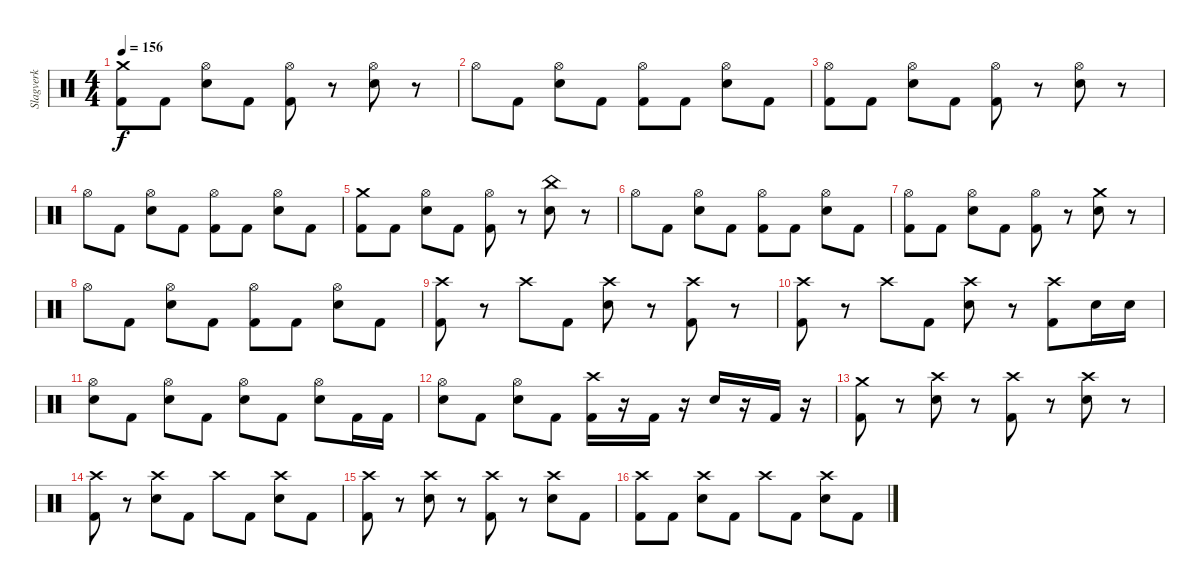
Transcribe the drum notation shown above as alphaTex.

\track ("Slagverk" "Slagverk") {instrument percussion}
\staff {score}
\articulation defaults
\ts (4 4)
\tempo 156
\clef neutral
\ks c
("Crash medium (hit)" "Kick (hit) 2").8{dy f} "Kick (hit) 2".8 ("Hi-Hat (open)" "Snare (hit) 2").8 "Kick (hit) 2".8 ("Hi-Hat (open)" "Kick (hit) 2").8 r.8 ("Hi-Hat (open)" "Snare (hit) 2").8 r.8 |
"Hi-Hat (open)".8 "Kick (hit) 2".8 ("Hi-Hat (open)" "Snare (hit) 2").8 "Kick (hit) 2".8 ("Hi-Hat (open)" "Kick (hit) 2").8 "Kick (hit) 2".8 ("Hi-Hat (open)" "Snare (hit) 2").8 "Kick (hit) 2".8 |
("Hi-Hat (open)" "Kick (hit) 2").8 "Kick (hit) 2".8 ("Hi-Hat (open)" "Snare (hit) 2").8 "Kick (hit) 2".8 ("Hi-Hat (open)" "Kick (hit) 2").8 r.8 ("Hi-Hat (open)" "Snare (hit) 2").8 r.8 |
"Hi-Hat (open)".8 "Kick (hit) 2".8 ("Hi-Hat (open)" "Snare (hit) 2").8 "Kick (hit) 2".8 ("Hi-Hat (open)" "Kick (hit) 2").8 "Kick (hit) 2".8 ("Hi-Hat (open)" "Snare (hit) 2").8 "Kick (hit) 2".8 |
("Crash medium (hit)" "Kick (hit) 2").8 "Kick (hit) 2".8 ("Hi-Hat (open)" "Snare (hit) 2").8 "Kick (hit) 2".8 ("Hi-Hat (open)" "Kick (hit) 2").8 r.8 ("China (hit)" "Snare (hit) 2").8 r.8 |
"Hi-Hat (open)".8 "Kick (hit) 2".8 ("Hi-Hat (open)" "Snare (hit) 2").8 "Kick (hit) 2".8 ("Hi-Hat (open)" "Kick (hit) 2").8 "Kick (hit) 2".8 ("Hi-Hat (open)" "Snare (hit) 2").8 "Kick (hit) 2".8 |
("Hi-Hat (open)" "Kick (hit) 2").8 "Kick (hit) 2".8 ("Hi-Hat (open)" "Snare (hit) 2").8 "Kick (hit) 2".8 ("Hi-Hat (open)" "Kick (hit) 2").8 r.8 ("Crash medium (hit)" "Snare (hit) 2").8 r.8 |
"Hi-Hat (open)".8 "Kick (hit) 2".8 ("Hi-Hat (open)" "Snare (hit) 2").8 "Kick (hit) 2".8 ("Hi-Hat (open)" "Kick (hit) 2").8 "Kick (hit) 2".8 ("Hi-Hat (open)" "Snare (hit) 2").8 "Kick (hit) 2".8 |
("Crash high (hit)" "Kick (hit) 2").8 r.8 "Crash high (hit)".8 "Kick (hit) 2".8 ("Crash high (hit)" "Snare (hit) 2").8 r.8 ("Crash high (hit)" "Kick (hit) 2").8 r.8 |
("Crash high (hit)" "Kick (hit) 2").8 r.8 "Crash high (hit)".8 "Kick (hit) 2".8 ("Crash high (hit)" "Snare (hit) 2").8 r.8 ("Crash high (hit)" "Kick (hit) 2").8 "Snare (hit) 2".16 "Snare (hit) 2".16 |
("Hi-Hat (open)" "Snare (hit) 2").8 "Kick (hit) 2".8 ("Hi-Hat (open)" "Snare (hit) 2").8 "Kick (hit) 2".8 ("Hi-Hat (open)" "Snare (hit) 2").8 "Kick (hit) 2".8 ("Hi-Hat (open)" "Snare (hit) 2").8 "Kick (hit) 2".16 "Kick (hit) 2".16 |
("Hi-Hat (open)" "Snare (hit) 2").8 "Kick (hit) 2".8 ("Hi-Hat (open)" "Snare (hit) 2").8 "Kick (hit) 2".8 ("Crash high (hit)" "Kick (hit) 2").16 r.16 "Kick (hit) 2".16 r.16 "Snare (hit) 2".16 r.16 "Kick (hit) 2".16 r.16 |
("Crash medium (hit)" "Kick (hit) 2").8 r.8 ("Crash high (hit)" "Snare (hit) 2").8 r.8 ("Crash high (hit)" "Kick (hit) 2").8 r.8 ("Crash high (hit)" "Snare (hit) 2").8 r.8 |
("Crash high (hit)" "Kick (hit) 2").8 r.8 ("Crash high (hit)" "Snare (hit) 2").8 "Kick (hit) 2".8 "Crash high (hit)".8 "Kick (hit) 2".8 ("Crash high (hit)" "Snare (hit) 2").8 "Kick (hit) 2".8 |
("Crash high (hit)" "Kick (hit) 2").8 r.8 ("Crash high (hit)" "Snare (hit) 2").8 r.8 ("Crash high (hit)" "Kick (hit) 2").8 r.8 ("Crash high (hit)" "Snare (hit) 2").8 "Kick (hit) 2".8 |
("Crash high (hit)" "Kick (hit) 2").8 "Kick (hit) 2".8 ("Crash high (hit)" "Snare (hit) 2").8 "Kick (hit) 2".8 "Crash high (hit)".8 "Kick (hit) 2".8 ("Crash high (hit)" "Snare (hit) 2").8 "Kick (hit) 2".8
